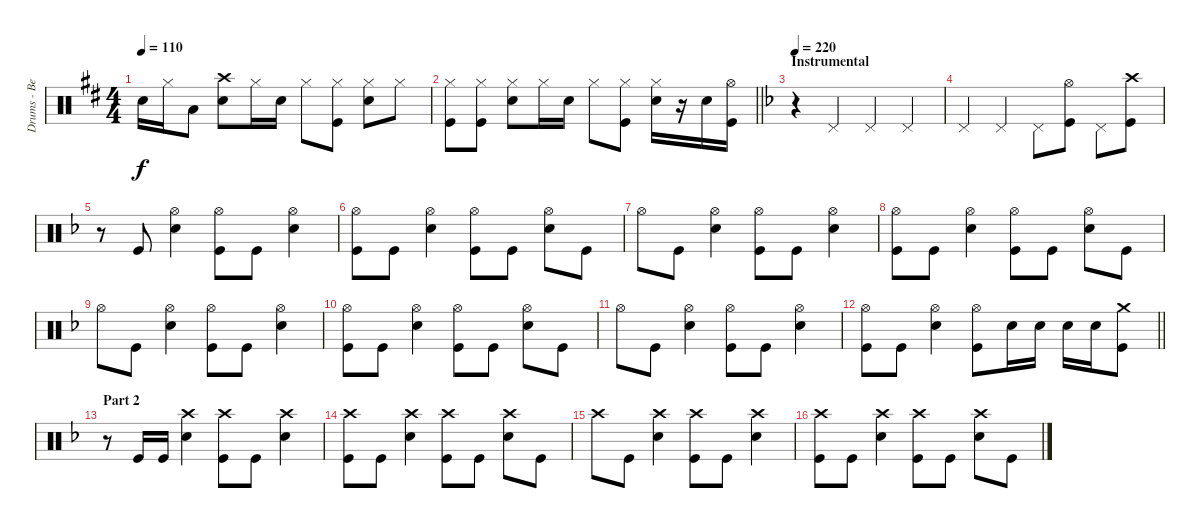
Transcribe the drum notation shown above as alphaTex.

\track ("Drums - Ben Johnston" "Drums - Be") {instrument percussion}
\staff {score}
\articulation defaults
\ts (4 4)
\tempo 110
\clef neutral
\ks d "Snare (hit) 2".16{dy f} "Hi-Hat (closed)".16 "Low Tom (hit)".8
("Crash high (hit)" "Snare (hit) 2").8 "Hi-Hat (closed)".16 "Snare (hit) 2".16 "Hi-Hat (closed)".8 ("Hi-Hat (closed)" "Kick (hit)").8 ("Hi-Hat (closed)" "Snare (hit) 2").8 "Hi-Hat (closed)".8 |
\barLineRight lightlight
("Hi-Hat (closed)" "Kick (hit)").8 ("Hi-Hat (closed)" "Kick (hit)").8 ("Hi-Hat (closed)" "Snare (hit) 2").8 "Hi-Hat (closed)".16 "Snare (hit) 2".16 "Hi-Hat (closed)".8 ("Hi-Hat (closed)" "Kick (hit)").8 ("Hi-Hat (closed)" "Snare (hit) 2").16 r.16 "Snare (hit) 2".16 ("Hi-Hat (open)" "Kick (hit)").16 |
\section ("" "Instrumental")
\tempo 220
\ks dminor
r.4 "Pedal Hi-Hat (hit)".4 "Pedal Hi-Hat (hit)".4 "Pedal Hi-Hat (hit)".4 |
"Pedal Hi-Hat (hit)".4 "Pedal Hi-Hat (hit)".4 "Pedal Hi-Hat (hit)".8 ("Hi-Hat (open)" "Kick (hit)").8 "Pedal Hi-Hat (hit)".8 ("Crash high (hit)" "Kick (hit)").8 |
r.8 "Kick (hit)".8 ("Hi-Hat (open)" "Snare (hit) 2").4 ("Hi-Hat (open)" "Kick (hit)").8 "Kick (hit)".8 ("Hi-Hat (open)" "Snare (hit) 2").4 |
("Hi-Hat (open)" "Kick (hit)").8 "Kick (hit)".8 ("Hi-Hat (open)" "Snare (hit) 2").4 ("Hi-Hat (open)" "Kick (hit)").8 "Kick (hit)".8 ("Hi-Hat (open)" "Snare (hit) 2").8 "Kick (hit)".8 |
"Hi-Hat (open)".8 "Kick (hit)".8 ("Hi-Hat (open)" "Snare (hit) 2").4 ("Hi-Hat (open)" "Kick (hit)").8 "Kick (hit)".8 ("Hi-Hat (open)" "Snare (hit) 2").4 |
("Hi-Hat (open)" "Kick (hit)").8 "Kick (hit)".8 ("Hi-Hat (open)" "Snare (hit) 2").4 ("Hi-Hat (open)" "Kick (hit)").8 "Kick (hit)".8 ("Hi-Hat (open)" "Snare (hit) 2").8 "Kick (hit)".8 |
"Hi-Hat (open)".8 "Kick (hit)".8 ("Hi-Hat (open)" "Snare (hit) 2").4 ("Hi-Hat (open)" "Kick (hit)").8 "Kick (hit)".8 ("Hi-Hat (open)" "Snare (hit) 2").4 |
("Hi-Hat (open)" "Kick (hit)").8 "Kick (hit)".8 ("Hi-Hat (open)" "Snare (hit) 2").4 ("Hi-Hat (open)" "Kick (hit)").8 "Kick (hit)".8 ("Hi-Hat (open)" "Snare (hit) 2").8 "Kick (hit)".8 |
"Hi-Hat (open)".8 "Kick (hit)".8 ("Hi-Hat (open)" "Snare (hit) 2").4 ("Hi-Hat (open)" "Kick (hit)").8 "Kick (hit)".8 ("Hi-Hat (open)" "Snare (hit) 2").4 |
\barLineRight lightlight
("Hi-Hat (open)" "Kick (hit)").8 "Kick (hit)".8 ("Hi-Hat (open)" "Snare (hit) 2").4 ("Hi-Hat (open)" "Kick (hit)").8 "Snare (hit) 2".16 "Snare (hit) 2".16 "Snare (hit) 2".16 "Snare (hit) 2".16 ("Crash medium (hit)" "Kick (hit)").8 |
\section ("" "Part 2")
r.8 "Kick (hit)".16 "Kick (hit)".16 ("Crash high (hit)" "Snare (hit) 2").4 ("Crash high (hit)" "Kick (hit)").8 "Kick (hit)".8 ("Crash high (hit)" "Snare (hit) 2").4 |
("Crash high (hit)" "Kick (hit)").8 "Kick (hit)".8 ("Crash high (hit)" "Snare (hit) 2").4 ("Crash high (hit)" "Kick (hit)").8 "Kick (hit)".8 ("Crash high (hit)" "Snare (hit) 2").8 "Kick (hit)".8 |
"Crash high (hit)".8 "Kick (hit)".8 ("Crash high (hit)" "Snare (hit) 2").4 ("Crash high (hit)" "Kick (hit)").8 "Kick (hit)".8 ("Crash high (hit)" "Snare (hit) 2").4 |
("Crash high (hit)" "Kick (hit)").8 "Kick (hit)".8 ("Crash high (hit)" "Snare (hit) 2").4 ("Crash high (hit)" "Kick (hit)").8 "Kick (hit)".8 ("Crash high (hit)" "Snare (hit) 2").8 "Kick (hit)".8
